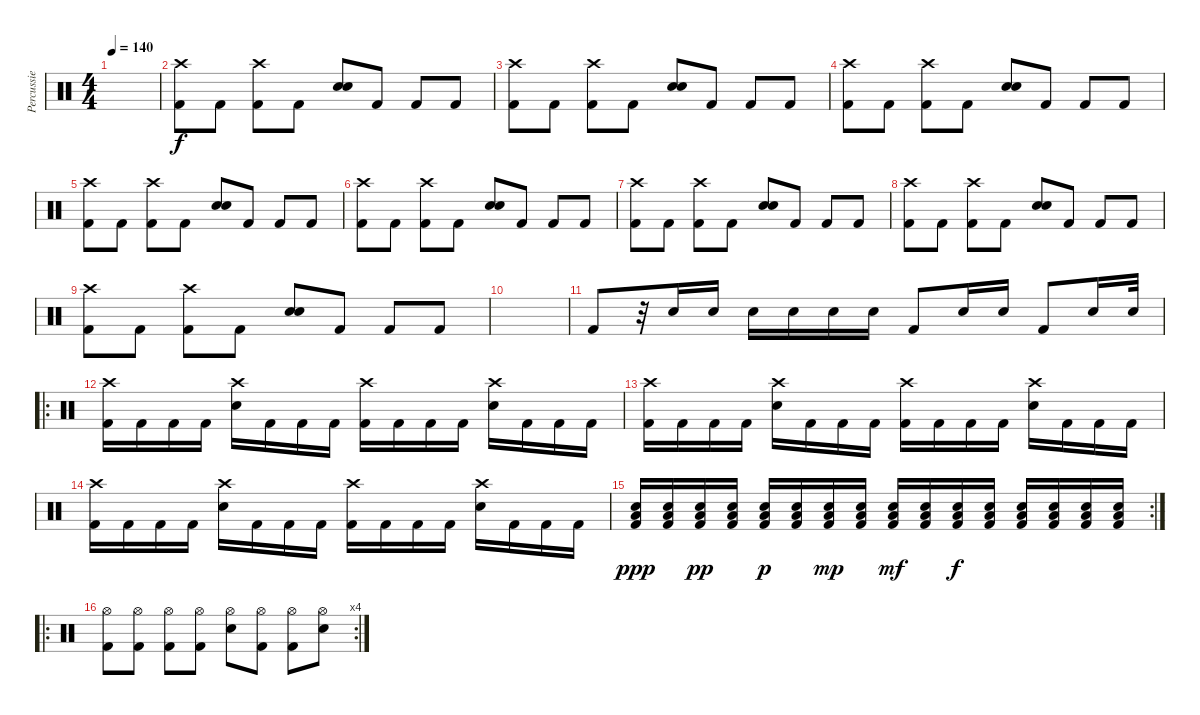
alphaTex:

\track ("Percussie" "Percussie") {instrument percussion}
\staff {score}
\articulation defaults
\ts (4 4)
\tempo 140
\clef neutral
\ks c
|
("Crash high (hit)" "Kick (hit) 2").8 "Kick (hit) 2".8 ("Crash high (hit)" "Kick (hit) 2").8 "Kick (hit) 2".8 ("Snare (hit) 2" "Snare (hit) 2").8{bd 480} "Kick (hit) 2".8 "Kick (hit) 2".8 "Kick (hit) 2".8 |
("Crash high (hit)" "Kick (hit) 2").8 "Kick (hit) 2".8 ("Crash high (hit)" "Kick (hit) 2").8 "Kick (hit) 2".8 ("Snare (hit) 2" "Snare (hit) 2").8{bd 480} "Kick (hit) 2".8 "Kick (hit) 2".8 "Kick (hit) 2".8 |
("Crash high (hit)" "Kick (hit) 2").8 "Kick (hit) 2".8 ("Crash high (hit)" "Kick (hit) 2").8 "Kick (hit) 2".8 ("Snare (hit) 2" "Snare (hit) 2").8{bd 480} "Kick (hit) 2".8 "Kick (hit) 2".8 "Kick (hit) 2".8 |
("Crash high (hit)" "Kick (hit) 2").8 "Kick (hit) 2".8 ("Crash high (hit)" "Kick (hit) 2").8 "Kick (hit) 2".8 ("Snare (hit) 2" "Snare (hit) 2").8{bd 480} "Kick (hit) 2".8 "Kick (hit) 2".8 "Kick (hit) 2".8 |
("Crash high (hit)" "Kick (hit) 2").8 "Kick (hit) 2".8 ("Crash high (hit)" "Kick (hit) 2").8 "Kick (hit) 2".8 ("Snare (hit) 2" "Snare (hit) 2").8{bd 480} "Kick (hit) 2".8 "Kick (hit) 2".8 "Kick (hit) 2".8 |
("Crash high (hit)" "Kick (hit) 2").8 "Kick (hit) 2".8 ("Crash high (hit)" "Kick (hit) 2").8 "Kick (hit) 2".8 ("Snare (hit) 2" "Snare (hit) 2").8{bd 480} "Kick (hit) 2".8 "Kick (hit) 2".8 "Kick (hit) 2".8 |
("Crash high (hit)" "Kick (hit) 2").8 "Kick (hit) 2".8 ("Crash high (hit)" "Kick (hit) 2").8 "Kick (hit) 2".8 ("Snare (hit) 2" "Snare (hit) 2").8{bd 480} "Kick (hit) 2".8 "Kick (hit) 2".8 "Kick (hit) 2".8 |
("Crash high (hit)" "Kick (hit) 2").8 "Kick (hit) 2".8 ("Crash high (hit)" "Kick (hit) 2").8 "Kick (hit) 2".8 ("Snare (hit) 2" "Snare (hit) 2").8{bd 480} "Kick (hit) 2".8 "Kick (hit) 2".8 "Kick (hit) 2".8 |
|
"Kick (hit) 2".8 r.32 "Snare (hit) 2".16 "Snare (hit) 2".16 "Snare (hit) 2".16 "Snare (hit) 2".16 "Snare (hit) 2".16 "Snare (hit) 2".16 "Kick (hit) 2".8 "Snare (hit) 2".16 "Snare (hit) 2".16 "Kick (hit) 2".8 "Snare (hit) 2".16 "Snare (hit) 2".32 |
\ro
("Crash high (hit)" "Kick (hit) 2").16 "Kick (hit) 2".16 "Kick (hit) 2".16 "Kick (hit) 2".16 ("Crash high (hit)" "Snare (hit) 2").16 "Kick (hit) 2".16 "Kick (hit) 2".16 "Kick (hit) 2".16 ("Crash high (hit)" "Kick (hit) 2").16 "Kick (hit) 2".16 "Kick (hit) 2".16 "Kick (hit) 2".16 ("Crash high (hit)" "Snare (hit) 2").16 "Kick (hit) 2".16 "Kick (hit) 2".16 "Kick (hit) 2".16 |
("Crash high (hit)" "Kick (hit) 2").16 "Kick (hit) 2".16 "Kick (hit) 2".16 "Kick (hit) 2".16 ("Crash high (hit)" "Snare (hit) 2").16 "Kick (hit) 2".16 "Kick (hit) 2".16 "Kick (hit) 2".16 ("Crash high (hit)" "Kick (hit) 2").16 "Kick (hit) 2".16 "Kick (hit) 2".16 "Kick (hit) 2".16 ("Crash high (hit)" "Snare (hit) 2").16 "Kick (hit) 2".16 "Kick (hit) 2".16 "Kick (hit) 2".16 |
("Crash high (hit)" "Kick (hit) 2").16 "Kick (hit) 2".16 "Kick (hit) 2".16 "Kick (hit) 2".16 ("Crash high (hit)" "Snare (hit) 2").16 "Kick (hit) 2".16 "Kick (hit) 2".16 "Kick (hit) 2".16 ("Crash high (hit)" "Kick (hit) 2").16 "Kick (hit) 2".16 "Kick (hit) 2".16 "Kick (hit) 2".16 ("Crash high (hit)" "Snare (hit) 2").16 "Kick (hit) 2".16 "Kick (hit) 2".16 "Kick (hit) 2".16 |
\rc 2
("Kick (hit) 2" "Snare (hit) 2" "Low Floor Tom (hit)").16{dy ppp} ("Kick (hit) 2" "Snare (hit) 2" "Low Floor Tom (hit)").16 ("Kick (hit) 2" "Snare (hit) 2" "Low Floor Tom (hit)").16{dy pp} ("Kick (hit) 2" "Snare (hit) 2" "Low Floor Tom (hit)").16 ("Kick (hit) 2" "Snare (hit) 2" "Low Floor Tom (hit)").16{dy p} ("Kick (hit) 2" "Snare (hit) 2" "Low Floor Tom (hit)").16 ("Kick (hit) 2" "Snare (hit) 2" "Low Floor Tom (hit)").16{dy mp} ("Kick (hit) 2" "Snare (hit) 2" "Low Floor Tom (hit)").16 ("Kick (hit) 2" "Snare (hit) 2" "Low Floor Tom (hit)").16{dy mf} ("Kick (hit) 2" "Snare (hit) 2" "Low Floor Tom (hit)").16 ("Kick (hit) 2" "Snare (hit) 2" "Low Floor Tom (hit)").16{dy f} ("Kick (hit) 2" "Snare (hit) 2" "Low Floor Tom (hit)").16 ("Kick (hit) 2" "Snare (hit) 2" "Low Floor Tom (hit)").16 ("Kick (hit) 2" "Snare (hit) 2" "Low Floor Tom (hit)").16 ("Kick (hit) 2" "Snare (hit) 2" "Low Floor Tom (hit)").16 ("Kick (hit) 2" "Snare (hit) 2" "Low Floor Tom (hit)").16 |
\ro
\rc 4
("Hi-Hat (open)" "Kick (hit) 2").8 ("Hi-Hat (open)" "Kick (hit) 2").8 ("Hi-Hat (open)" "Kick (hit) 2").8 ("Hi-Hat (open)" "Kick (hit) 2").8 ("Hi-Hat (open)" "Snare (hit) 2").8 ("Hi-Hat (open)" "Kick (hit) 2").8 ("Hi-Hat (open)" "Kick (hit) 2").8 ("Hi-Hat (open)" "Snare (hit) 2").8
